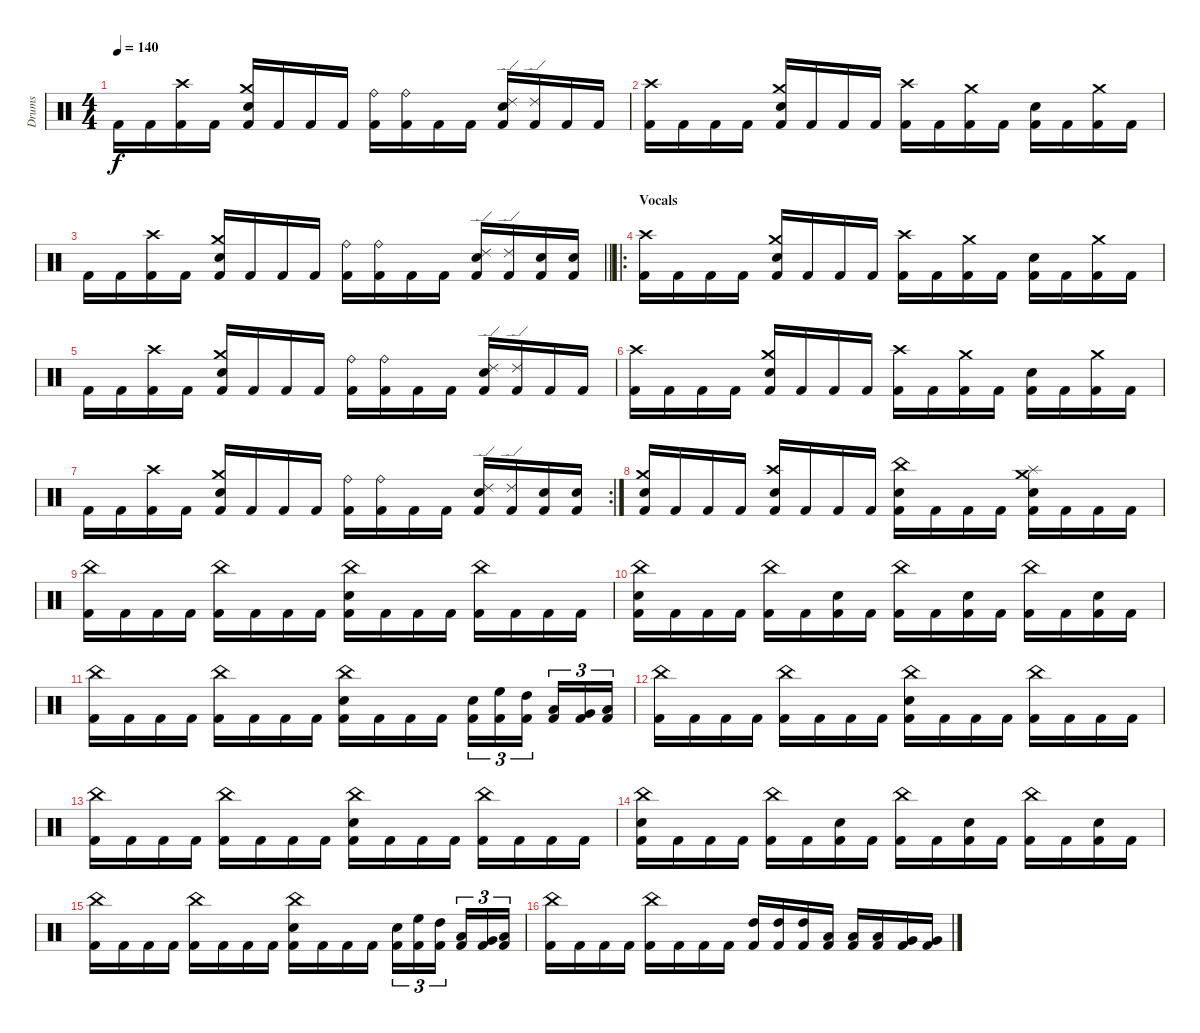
\track ("Drums" "Drums") {mute instrument percussion}
\staff {score}
\articulation defaults
\ts (4 4)
\tempo 140
\clef neutral
\ks c "Kick (hit) 2".16{dy f} "Kick (hit) 2".16
("Crash high (hit)" "Kick (hit) 2").16 "Kick (hit) 2".16 ("Crash medium (hit)" "Electric Snare (hit)" "Kick (hit) 2").16 "Kick (hit) 2".16 "Kick (hit) 2".16 "Kick (hit) 2".16 ("Ride (bell)" "Kick (hit) 2").16 ("Ride (bell)" "Kick (hit) 2").16 "Kick (hit) 2".16 "Kick (hit) 2".16 ("Ride (edge) 2" "Electric Snare (hit)" "Kick (hit) 2").16 ("Ride (edge) 2" "Kick (hit) 2").16 "Kick (hit) 2".16 "Kick (hit) 2".16 |
("Crash high (hit)" "Kick (hit) 2").16 "Kick (hit) 2".16 "Kick (hit) 2".16 "Kick (hit) 2".16 ("Crash medium (hit)" "Electric Snare (hit)" "Kick (hit) 2").16 "Kick (hit) 2".16 "Kick (hit) 2".16 "Kick (hit) 2".16 ("Crash high (hit)" "Kick (hit) 2").16 "Kick (hit) 2".16 ("Crash medium (hit)" "Kick (hit) 2").16 "Kick (hit) 2".16 ("Electric Snare (hit)" "Kick (hit) 2").16 "Kick (hit) 2".16 ("Crash medium (hit)" "Kick (hit) 2").16 "Kick (hit) 2".16 |
\barLineRight lightlight "Kick (hit) 2".16 "Kick (hit) 2".16
("Crash high (hit)" "Kick (hit) 2").16 "Kick (hit) 2".16 ("Crash medium (hit)" "Electric Snare (hit)" "Kick (hit) 2").16 "Kick (hit) 2".16 "Kick (hit) 2".16 "Kick (hit) 2".16 ("Ride (bell)" "Kick (hit) 2").16 ("Ride (bell)" "Kick (hit) 2").16 "Kick (hit) 2".16 "Kick (hit) 2".16 ("Ride (edge) 2" "Electric Snare (hit)" "Kick (hit) 2").16 ("Ride (edge) 2" "Kick (hit) 2").16 ("Electric Snare (hit)" "Kick (hit) 2").16 ("Electric Snare (hit)" "Kick (hit) 2").16 |
\ro
\section ("" "Vocals")
("Crash high (hit)" "Kick (hit) 2").16 "Kick (hit) 2".16 "Kick (hit) 2".16 "Kick (hit) 2".16 ("Crash medium (hit)" "Electric Snare (hit)" "Kick (hit) 2").16 "Kick (hit) 2".16 "Kick (hit) 2".16 "Kick (hit) 2".16 ("Crash high (hit)" "Kick (hit) 2").16 "Kick (hit) 2".16 ("Crash medium (hit)" "Kick (hit) 2").16 "Kick (hit) 2".16 ("Electric Snare (hit)" "Kick (hit) 2").16 "Kick (hit) 2".16 ("Crash medium (hit)" "Kick (hit) 2").16 "Kick (hit) 2".16 |
"Kick (hit) 2".16 "Kick (hit) 2".16 ("Crash high (hit)" "Kick (hit) 2").16 "Kick (hit) 2".16 ("Crash medium (hit)" "Electric Snare (hit)" "Kick (hit) 2").16 "Kick (hit) 2".16 "Kick (hit) 2".16 "Kick (hit) 2".16 ("Ride (bell)" "Kick (hit) 2").16 ("Ride (bell)" "Kick (hit) 2").16 "Kick (hit) 2".16 "Kick (hit) 2".16 ("Ride (edge) 2" "Electric Snare (hit)" "Kick (hit) 2").16 ("Ride (edge) 2" "Kick (hit) 2").16 "Kick (hit) 2".16 "Kick (hit) 2".16 |
("Crash high (hit)" "Kick (hit) 2").16 "Kick (hit) 2".16 "Kick (hit) 2".16 "Kick (hit) 2".16 ("Crash medium (hit)" "Electric Snare (hit)" "Kick (hit) 2").16 "Kick (hit) 2".16 "Kick (hit) 2".16 "Kick (hit) 2".16 ("Crash high (hit)" "Kick (hit) 2").16 "Kick (hit) 2".16 ("Crash medium (hit)" "Kick (hit) 2").16 "Kick (hit) 2".16 ("Electric Snare (hit)" "Kick (hit) 2").16 "Kick (hit) 2".16 ("Crash medium (hit)" "Kick (hit) 2").16 "Kick (hit) 2".16 |
\rc 2 "Kick (hit) 2".16 "Kick (hit) 2".16
("Crash high (hit)" "Kick (hit) 2").16 "Kick (hit) 2".16 ("Crash medium (hit)" "Electric Snare (hit)" "Kick (hit) 2").16 "Kick (hit) 2".16 "Kick (hit) 2".16 "Kick (hit) 2".16 ("Ride (bell)" "Kick (hit) 2").16 ("Ride (bell)" "Kick (hit) 2").16 "Kick (hit) 2".16 "Kick (hit) 2".16 ("Ride (edge) 2" "Electric Snare (hit)" "Kick (hit) 2").16 ("Ride (edge) 2" "Kick (hit) 2").16 ("Electric Snare (hit)" "Kick (hit) 2").16 ("Electric Snare (hit)" "Kick (hit) 2").16 |
("Crash medium (hit)" "Electric Snare (hit)" "Kick (hit) 2").16 "Kick (hit) 2".16 "Kick (hit) 2".16 "Kick (hit) 2".16 ("Crash high (hit)" "Electric Snare (hit)" "Kick (hit) 2").16 "Kick (hit) 2".16 "Kick (hit) 2".16 "Kick (hit) 2".16 ("China (hit)" "Electric Snare (hit)" "Kick (hit) 2").16 "Kick (hit) 2".16 "Kick (hit) 2".16 "Kick (hit) 2".16 ("Crash medium (hit)" "Splash (hit)" "Electric Snare (hit)" "Kick (hit) 2").16 "Kick (hit) 2".16 "Kick (hit) 2".16 "Kick (hit) 2".16 |
("China (hit)" "Kick (hit) 2").16 "Kick (hit) 2".16 "Kick (hit) 2".16 "Kick (hit) 2".16 ("China (hit)" "Kick (hit) 2").16 "Kick (hit) 2".16 "Kick (hit) 2".16 "Kick (hit) 2".16 ("China (hit)" "Electric Snare (hit)" "Kick (hit) 2").16 "Kick (hit) 2".16 "Kick (hit) 2".16 "Kick (hit) 2".16 ("China (hit)" "Kick (hit) 2").16 "Kick (hit) 2".16 "Kick (hit) 2".16 "Kick (hit) 2".16 |
("China (hit)" "Electric Snare (hit)" "Kick (hit) 2").16 "Kick (hit) 2".16 "Kick (hit) 2".16 "Kick (hit) 2".16 ("China (hit)" "Kick (hit) 2").16 "Kick (hit) 2".16 ("Electric Snare (hit)" "Kick (hit) 2").16 "Kick (hit) 2".16 ("China (hit)" "Kick (hit) 2").16 "Kick (hit) 2".16 ("Electric Snare (hit)" "Kick (hit) 2").16 "Kick (hit) 2".16 ("China (hit)" "Kick (hit) 2").16 "Kick (hit) 2".16 ("Electric Snare (hit)" "Kick (hit) 2").16 "Kick (hit) 2".16 |
("China (hit)" "Kick (hit) 2").16 "Kick (hit) 2".16 "Kick (hit) 2".16 "Kick (hit) 2".16 ("China (hit)" "Kick (hit) 2").16 "Kick (hit) 2".16 "Kick (hit) 2".16 "Kick (hit) 2".16 ("China (hit)" "Electric Snare (hit)" "Kick (hit) 2").16 "Kick (hit) 2".16 "Kick (hit) 2".16 "Kick (hit) 2".16 ("Electric Snare (hit)" "Kick (hit) 2").16{tu (3 2)} ("High Floor Tom (hit)" "Kick (hit) 2").16{tu (3 2)} ("High Tom (hit)" "Kick (hit) 2").16{tu (3 2) beam splitsecondary} ("Low Tom (hit)" "Kick (hit) 2").16{tu (3 2)} ("Very Low Tom (hit)" "Kick (hit) 2").16{tu (3 2)} ("Low Floor Tom (hit)" "Kick (hit) 2").16{tu (3 2)} |
("China (hit)" "Kick (hit) 2").16 "Kick (hit) 2".16 "Kick (hit) 2".16 "Kick (hit) 2".16 ("China (hit)" "Kick (hit) 2").16 "Kick (hit) 2".16 "Kick (hit) 2".16 "Kick (hit) 2".16 ("China (hit)" "Electric Snare (hit)" "Kick (hit) 2").16 "Kick (hit) 2".16 "Kick (hit) 2".16 "Kick (hit) 2".16 ("China (hit)" "Kick (hit) 2").16 "Kick (hit) 2".16 "Kick (hit) 2".16 "Kick (hit) 2".16 |
("China (hit)" "Kick (hit) 2").16 "Kick (hit) 2".16 "Kick (hit) 2".16 "Kick (hit) 2".16 ("China (hit)" "Kick (hit) 2").16 "Kick (hit) 2".16 "Kick (hit) 2".16 "Kick (hit) 2".16 ("China (hit)" "Electric Snare (hit)" "Kick (hit) 2").16 "Kick (hit) 2".16 "Kick (hit) 2".16 "Kick (hit) 2".16 ("China (hit)" "Kick (hit) 2").16 "Kick (hit) 2".16 "Kick (hit) 2".16 "Kick (hit) 2".16 |
("China (hit)" "Electric Snare (hit)" "Kick (hit) 2").16 "Kick (hit) 2".16 "Kick (hit) 2".16 "Kick (hit) 2".16 ("China (hit)" "Kick (hit) 2").16 "Kick (hit) 2".16 ("Electric Snare (hit)" "Kick (hit) 2").16 "Kick (hit) 2".16 ("China (hit)" "Kick (hit) 2").16 "Kick (hit) 2".16 ("Electric Snare (hit)" "Kick (hit) 2").16 "Kick (hit) 2".16 ("China (hit)" "Kick (hit) 2").16 "Kick (hit) 2".16 ("Electric Snare (hit)" "Kick (hit) 2").16 "Kick (hit) 2".16 |
("China (hit)" "Kick (hit) 2").16 "Kick (hit) 2".16 "Kick (hit) 2".16 "Kick (hit) 2".16 ("China (hit)" "Kick (hit) 2").16 "Kick (hit) 2".16 "Kick (hit) 2".16 "Kick (hit) 2".16 ("China (hit)" "Electric Snare (hit)" "Kick (hit) 2").16 "Kick (hit) 2".16 "Kick (hit) 2".16 "Kick (hit) 2".16 ("Electric Snare (hit)" "Kick (hit) 2").16{tu (3 2)} ("High Floor Tom (hit)" "Kick (hit) 2").16{tu (3 2)} ("High Tom (hit)" "Kick (hit) 2").16{tu (3 2) beam splitsecondary} ("Low Tom (hit)" "Kick (hit) 2").16{tu (3 2)} ("Very Low Tom (hit)" "Kick (hit) 2").16{tu (3 2)} ("Low Floor Tom (hit)" "Kick (hit) 2").16{tu (3 2)} |
("China (hit)" "Kick (hit) 2").16 "Kick (hit) 2".16 "Kick (hit) 2".16 "Kick (hit) 2".16 ("China (hit)" "Kick (hit) 2").16 "Kick (hit) 2".16 "Kick (hit) 2".16 "Kick (hit) 2".16 ("High Tom (hit)" "Kick (hit) 2").16 ("High Tom (hit)" "Kick (hit) 2").16 ("High Tom (hit)" "Kick (hit) 2").16 ("Low Tom (hit)" "Kick (hit) 2").16 ("Low Tom (hit)" "Kick (hit) 2").16 ("Low Tom (hit)" "Kick (hit) 2").16 ("Very Low Tom (hit)" "Kick (hit) 2").16 ("Very Low Tom (hit)" "Kick (hit) 2").16
